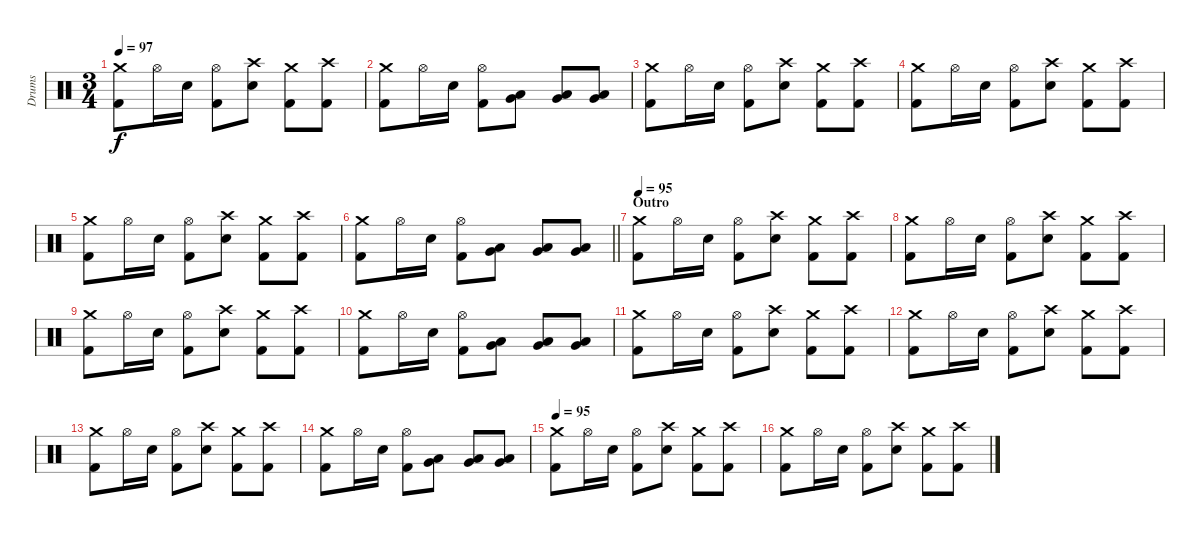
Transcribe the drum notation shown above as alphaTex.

\track ("Drums" "Drums") {instrument percussion}
\staff {score}
\articulation defaults
\ts (3 4)
\tempo 97
\clef neutral
\ks c
("Crash medium (hit)" "Kick (hit) 2").8{dy f} "Hi-Hat (open)".16 "Electric Snare (hit)".16 ("Hi-Hat (open)" "Kick (hit) 2").8 ("Crash high (hit)" "Electric Snare (hit)").8 ("Crash medium (hit)" "Kick (hit) 2").8 ("Crash high (hit)" "Kick (hit) 2").8 |
("Crash medium (hit)" "Kick (hit) 2").8 "Hi-Hat (open)".16 "Electric Snare (hit)".16 ("Hi-Hat (open)" "Kick (hit) 2").8 ("Very Low Tom (hit)" "Low Tom (hit)").8 ("Very Low Tom (hit)" "Low Tom (hit)").8 ("Very Low Tom (hit)" "Low Tom (hit)").8 |
("Crash medium (hit)" "Kick (hit) 2").8 "Hi-Hat (open)".16 "Electric Snare (hit)".16 ("Hi-Hat (open)" "Kick (hit) 2").8 ("Crash high (hit)" "Electric Snare (hit)").8 ("Crash medium (hit)" "Kick (hit) 2").8 ("Crash high (hit)" "Kick (hit) 2").8 |
("Crash medium (hit)" "Kick (hit) 2").8 "Hi-Hat (open)".16 "Electric Snare (hit)".16 ("Hi-Hat (open)" "Kick (hit) 2").8 ("Crash high (hit)" "Electric Snare (hit)").8 ("Crash medium (hit)" "Kick (hit) 2").8 ("Crash high (hit)" "Kick (hit) 2").8 |
("Crash medium (hit)" "Kick (hit) 2").8 "Hi-Hat (open)".16 "Electric Snare (hit)".16 ("Hi-Hat (open)" "Kick (hit) 2").8 ("Crash high (hit)" "Electric Snare (hit)").8 ("Crash medium (hit)" "Kick (hit) 2").8 ("Crash high (hit)" "Kick (hit) 2").8 |
\barLineRight lightlight
("Crash medium (hit)" "Kick (hit) 2").8 "Hi-Hat (open)".16 "Electric Snare (hit)".16 ("Hi-Hat (open)" "Kick (hit) 2").8 ("Very Low Tom (hit)" "Low Tom (hit)").8 ("Very Low Tom (hit)" "Low Tom (hit)").8 ("Very Low Tom (hit)" "Low Tom (hit)").8 |
\section ("" "Outro")
\tempo 95
("Crash medium (hit)" "Kick (hit) 2").8 "Hi-Hat (open)".16 "Electric Snare (hit)".16 ("Hi-Hat (open)" "Kick (hit) 2").8 ("Crash high (hit)" "Electric Snare (hit)").8 ("Crash medium (hit)" "Kick (hit) 2").8 ("Crash high (hit)" "Kick (hit) 2").8 |
("Crash medium (hit)" "Kick (hit) 2").8 "Hi-Hat (open)".16 "Electric Snare (hit)".16 ("Hi-Hat (open)" "Kick (hit) 2").8 ("Crash high (hit)" "Electric Snare (hit)").8 ("Crash medium (hit)" "Kick (hit) 2").8 ("Crash high (hit)" "Kick (hit) 2").8 |
("Crash medium (hit)" "Kick (hit) 2").8 "Hi-Hat (open)".16 "Electric Snare (hit)".16 ("Hi-Hat (open)" "Kick (hit) 2").8 ("Crash high (hit)" "Electric Snare (hit)").8 ("Crash medium (hit)" "Kick (hit) 2").8 ("Crash high (hit)" "Kick (hit) 2").8 |
("Crash medium (hit)" "Kick (hit) 2").8 "Hi-Hat (open)".16 "Electric Snare (hit)".16 ("Hi-Hat (open)" "Kick (hit) 2").8 ("Very Low Tom (hit)" "Low Tom (hit)").8 ("Very Low Tom (hit)" "Low Tom (hit)").8 ("Very Low Tom (hit)" "Low Tom (hit)").8 |
("Crash medium (hit)" "Kick (hit) 2").8 "Hi-Hat (open)".16 "Electric Snare (hit)".16 ("Hi-Hat (open)" "Kick (hit) 2").8 ("Crash high (hit)" "Electric Snare (hit)").8 ("Crash medium (hit)" "Kick (hit) 2").8 ("Crash high (hit)" "Kick (hit) 2").8 |
("Crash medium (hit)" "Kick (hit) 2").8 "Hi-Hat (open)".16 "Electric Snare (hit)".16 ("Hi-Hat (open)" "Kick (hit) 2").8 ("Crash high (hit)" "Electric Snare (hit)").8 ("Crash medium (hit)" "Kick (hit) 2").8 ("Crash high (hit)" "Kick (hit) 2").8 |
("Crash medium (hit)" "Kick (hit) 2").8 "Hi-Hat (open)".16 "Electric Snare (hit)".16 ("Hi-Hat (open)" "Kick (hit) 2").8 ("Crash high (hit)" "Electric Snare (hit)").8 ("Crash medium (hit)" "Kick (hit) 2").8 ("Crash high (hit)" "Kick (hit) 2").8 |
("Crash medium (hit)" "Kick (hit) 2").8 "Hi-Hat (open)".16 "Electric Snare (hit)".16 ("Hi-Hat (open)" "Kick (hit) 2").8 ("Very Low Tom (hit)" "Low Tom (hit)").8 ("Very Low Tom (hit)" "Low Tom (hit)").8 ("Very Low Tom (hit)" "Low Tom (hit)").8 |
\tempo 95
("Crash medium (hit)" "Kick (hit) 2").8 "Hi-Hat (open)".16 "Electric Snare (hit)".16 ("Hi-Hat (open)" "Kick (hit) 2").8 ("Crash high (hit)" "Electric Snare (hit)").8 ("Crash medium (hit)" "Kick (hit) 2").8 ("Crash high (hit)" "Kick (hit) 2").8 |
("Crash medium (hit)" "Kick (hit) 2").8 "Hi-Hat (open)".16 "Electric Snare (hit)".16 ("Hi-Hat (open)" "Kick (hit) 2").8 ("Crash high (hit)" "Electric Snare (hit)").8 ("Crash medium (hit)" "Kick (hit) 2").8 ("Crash high (hit)" "Kick (hit) 2").8
